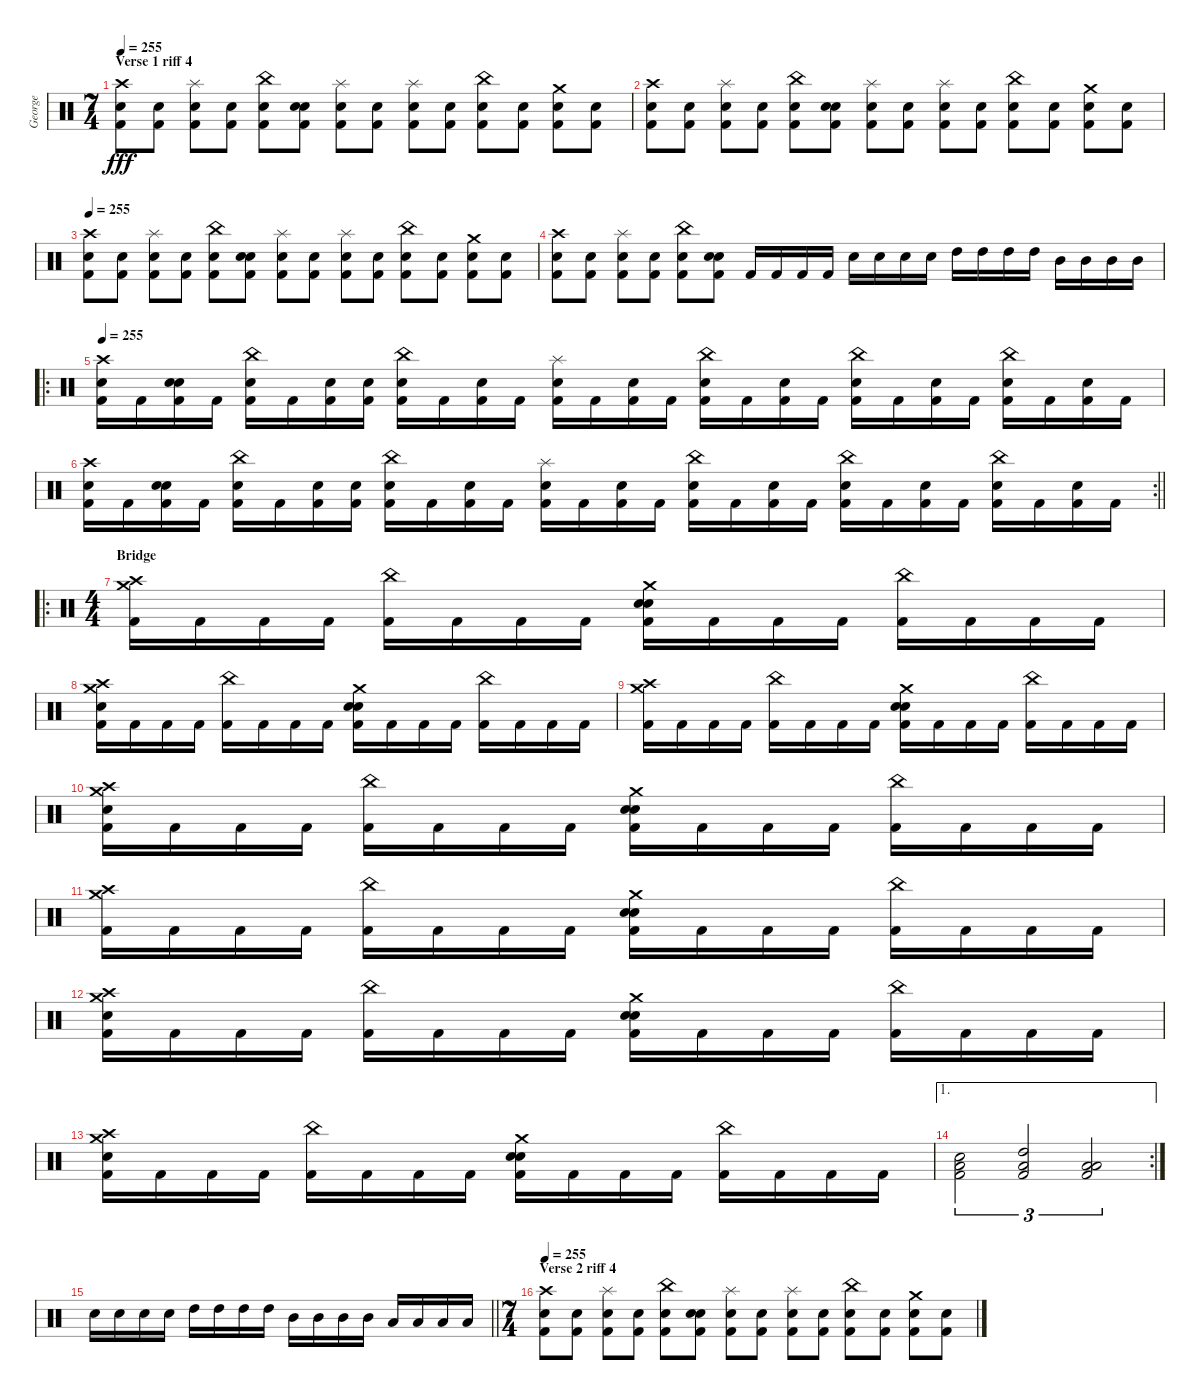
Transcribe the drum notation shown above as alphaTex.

\track ("George" "George") {instrument percussion}
\staff {score}
\articulation defaults
\ts (7 4)
\section ("" "Verse 1 riff 4")
\tempo 255
\clef neutral
\ks c
("Crash high (hit)" "Snare (hit) 2" "Kick (hit) 2").8{dy fff} ("Snare (hit) 2" "Kick (hit) 2").8 ("Splash (hit)" "Snare (hit) 2" "Kick (hit) 2").8 ("Snare (hit) 2" "Kick (hit) 2").8 ("China (hit)" "Snare (hit) 2" "Kick (hit) 2").8 ("Snare (hit)" "Snare (hit) 2" "Kick (hit) 2").8 ("Splash (hit)" "Snare (hit) 2" "Kick (hit) 2").8 ("Snare (hit) 2" "Kick (hit) 2").8 ("Splash (hit)" "Snare (hit) 2" "Kick (hit) 2").8 ("Snare (hit) 2" "Kick (hit) 2").8 ("China (hit)" "Snare (hit) 2" "Kick (hit) 2").8 ("Snare (hit) 2" "Kick (hit) 2").8 ("Crash medium (hit)" "Snare (hit) 2" "Kick (hit) 2").8 ("Snare (hit) 2" "Kick (hit) 2").8 |
("Crash high (hit)" "Snare (hit) 2" "Kick (hit) 2").8 ("Snare (hit) 2" "Kick (hit) 2").8 ("Splash (hit)" "Snare (hit) 2" "Kick (hit) 2").8 ("Snare (hit) 2" "Kick (hit) 2").8 ("China (hit)" "Snare (hit) 2" "Kick (hit) 2").8 ("Snare (hit)" "Snare (hit) 2" "Kick (hit) 2").8 ("Splash (hit)" "Snare (hit) 2" "Kick (hit) 2").8 ("Snare (hit) 2" "Kick (hit) 2").8 ("Splash (hit)" "Snare (hit) 2" "Kick (hit) 2").8 ("Snare (hit) 2" "Kick (hit) 2").8 ("China (hit)" "Snare (hit) 2" "Kick (hit) 2").8 ("Snare (hit) 2" "Kick (hit) 2").8 ("Crash medium (hit)" "Snare (hit) 2" "Kick (hit) 2").8 ("Snare (hit) 2" "Kick (hit) 2").8 |
\tempo 255
("Crash high (hit)" "Snare (hit) 2" "Kick (hit) 2").8 ("Snare (hit) 2" "Kick (hit) 2").8 ("Splash (hit)" "Snare (hit) 2" "Kick (hit) 2").8 ("Snare (hit) 2" "Kick (hit) 2").8 ("China (hit)" "Snare (hit) 2" "Kick (hit) 2").8 ("Snare (hit)" "Snare (hit) 2" "Kick (hit) 2").8 ("Splash (hit)" "Snare (hit) 2" "Kick (hit) 2").8 ("Snare (hit) 2" "Kick (hit) 2").8 ("Splash (hit)" "Snare (hit) 2" "Kick (hit) 2").8 ("Snare (hit) 2" "Kick (hit) 2").8 ("China (hit)" "Snare (hit) 2" "Kick (hit) 2").8 ("Snare (hit) 2" "Kick (hit) 2").8 ("Crash medium (hit)" "Snare (hit) 2" "Kick (hit) 2").8 ("Snare (hit) 2" "Kick (hit) 2").8 |
("Crash high (hit)" "Snare (hit) 2" "Kick (hit) 2").8 ("Snare (hit) 2" "Kick (hit) 2").8 ("Splash (hit)" "Snare (hit) 2" "Kick (hit) 2").8 ("Snare (hit) 2" "Kick (hit) 2").8 ("China (hit)" "Snare (hit) 2" "Kick (hit) 2").8 ("Snare (hit)" "Snare (hit) 2" "Kick (hit) 2").8 "Kick (hit) 2".16 "Kick (hit) 2".16 "Kick (hit) 2".16 "Kick (hit) 2".16 "Snare (hit) 2".16 "Snare (hit) 2".16 "Snare (hit) 2".16 "Snare (hit) 2".16 "High Tom (hit)".16 "High Tom (hit)".16 "High Tom (hit)".16 "High Tom (hit)".16 "Mid Tom (hit)".16 "Mid Tom (hit)".16 "Mid Tom (hit)".16 "Mid Tom (hit)".16 |
\ro
\tempo 255
("Crash high (hit)" "Snare (hit) 2" "Kick (hit) 2").16 "Kick (hit) 2".16 ("Snare (hit)" "Snare (hit) 2" "Kick (hit) 2").16 "Kick (hit) 2".16 ("China (hit)" "Snare (hit) 2" "Kick (hit) 2").16 "Kick (hit) 2".16 ("Snare (hit) 2" "Kick (hit) 2").16 ("Snare (hit)" "Kick (hit) 2").16 ("China (hit)" "Snare (hit) 2" "Kick (hit) 2").16 "Kick (hit) 2".16 ("Snare (hit) 2" "Kick (hit) 2").16 "Kick (hit) 2".16 ("Splash (hit)" "Snare (hit) 2" "Kick (hit) 2").16 "Kick (hit) 2".16 ("Snare (hit) 2" "Kick (hit) 2").16 "Kick (hit) 2".16 ("China (hit)" "Snare (hit) 2" "Kick (hit) 2").16 "Kick (hit) 2".16 ("Snare (hit) 2" "Kick (hit) 2").16 "Kick (hit) 2".16 ("China (hit)" "Snare (hit) 2" "Kick (hit) 2").16 "Kick (hit) 2".16 ("Snare (hit) 2" "Kick (hit) 2").16 "Kick (hit) 2".16 ("China (hit)" "Snare (hit) 2" "Kick (hit) 2").16 "Kick (hit) 2".16 ("Snare (hit) 2" "Kick (hit) 2").16 "Kick (hit) 2".16 |
\rc 2
\barLineRight lightlight
("Crash high (hit)" "Snare (hit) 2" "Kick (hit) 2").16 "Kick (hit) 2".16 ("Snare (hit)" "Snare (hit) 2" "Kick (hit) 2").16 "Kick (hit) 2".16 ("China (hit)" "Snare (hit) 2" "Kick (hit) 2").16 "Kick (hit) 2".16 ("Snare (hit) 2" "Kick (hit) 2").16 ("Snare (hit)" "Kick (hit) 2").16 ("China (hit)" "Snare (hit) 2" "Kick (hit) 2").16 "Kick (hit) 2".16 ("Snare (hit) 2" "Kick (hit) 2").16 "Kick (hit) 2".16 ("Splash (hit)" "Snare (hit) 2" "Kick (hit) 2").16 "Kick (hit) 2".16 ("Snare (hit) 2" "Kick (hit) 2").16 "Kick (hit) 2".16 ("China (hit)" "Snare (hit) 2" "Kick (hit) 2").16 "Kick (hit) 2".16 ("Snare (hit) 2" "Kick (hit) 2").16 "Kick (hit) 2".16 ("China (hit)" "Snare (hit) 2" "Kick (hit) 2").16 "Kick (hit) 2".16 ("Snare (hit) 2" "Kick (hit) 2").16 "Kick (hit) 2".16 ("China (hit)" "Snare (hit) 2" "Kick (hit) 2").16 "Kick (hit) 2".16 ("Snare (hit) 2" "Kick (hit) 2").16 "Kick (hit) 2".16 |
\ro
\ts (4 4)
\section ("" "Bridge")
("Crash medium (hit)" "Crash high (hit)" "Kick (hit) 2").16 "Kick (hit) 2".16 "Kick (hit) 2".16 "Kick (hit) 2".16 ("China (hit)" "Kick (hit) 2").16 "Kick (hit) 2".16 "Kick (hit) 2".16 "Kick (hit) 2".16 ("Crash medium (hit)" "Snare (hit)" "Snare (hit)" "Kick (hit) 2").16 "Kick (hit) 2".16 "Kick (hit) 2".16 "Kick (hit) 2".16 ("China (hit)" "Kick (hit) 2").16 "Kick (hit) 2".16 "Kick (hit) 2".16 "Kick (hit) 2".16 |
("Crash medium (hit)" "Crash high (hit)" "Snare (hit) 2" "Kick (hit) 2").16 "Kick (hit) 2".16 "Kick (hit) 2".16 "Kick (hit) 2".16 ("China (hit)" "Kick (hit) 2").16 "Kick (hit) 2".16 "Kick (hit) 2".16 "Kick (hit) 2".16 ("Crash medium (hit)" "Snare (hit)" "Snare (hit)" "Kick (hit) 2").16 "Kick (hit) 2".16 "Kick (hit) 2".16 "Kick (hit) 2".16 ("China (hit)" "Kick (hit) 2").16 "Kick (hit) 2".16 "Kick (hit) 2".16 "Kick (hit) 2".16 |
("Crash medium (hit)" "Crash high (hit)" "Kick (hit) 2").16 "Kick (hit) 2".16 "Kick (hit) 2".16 "Kick (hit) 2".16 ("China (hit)" "Kick (hit) 2").16 "Kick (hit) 2".16 "Kick (hit) 2".16 "Kick (hit) 2".16 ("Crash medium (hit)" "Snare (hit)" "Snare (hit)" "Kick (hit) 2").16 "Kick (hit) 2".16 "Kick (hit) 2".16 "Kick (hit) 2".16 ("China (hit)" "Kick (hit) 2").16 "Kick (hit) 2".16 "Kick (hit) 2".16 "Kick (hit) 2".16 |
("Crash medium (hit)" "Crash high (hit)" "Snare (hit) 2" "Kick (hit) 2").16 "Kick (hit) 2".16 "Kick (hit) 2".16 "Kick (hit) 2".16 ("China (hit)" "Kick (hit) 2").16 "Kick (hit) 2".16 "Kick (hit) 2".16 "Kick (hit) 2".16 ("Crash medium (hit)" "Snare (hit)" "Snare (hit)" "Kick (hit) 2").16 "Kick (hit) 2".16 "Kick (hit) 2".16 "Kick (hit) 2".16 ("China (hit)" "Kick (hit) 2").16 "Kick (hit) 2".16 "Kick (hit) 2".16 "Kick (hit) 2".16 |
("Crash medium (hit)" "Crash high (hit)" "Kick (hit) 2").16 "Kick (hit) 2".16 "Kick (hit) 2".16 "Kick (hit) 2".16 ("China (hit)" "Kick (hit) 2").16 "Kick (hit) 2".16 "Kick (hit) 2".16 "Kick (hit) 2".16 ("Crash medium (hit)" "Snare (hit)" "Snare (hit)" "Kick (hit) 2").16 "Kick (hit) 2".16 "Kick (hit) 2".16 "Kick (hit) 2".16 ("China (hit)" "Kick (hit) 2").16 "Kick (hit) 2".16 "Kick (hit) 2".16 "Kick (hit) 2".16 |
("Crash medium (hit)" "Crash high (hit)" "Snare (hit) 2" "Kick (hit) 2").16 "Kick (hit) 2".16 "Kick (hit) 2".16 "Kick (hit) 2".16 ("China (hit)" "Kick (hit) 2").16 "Kick (hit) 2".16 "Kick (hit) 2".16 "Kick (hit) 2".16 ("Crash medium (hit)" "Snare (hit)" "Snare (hit)" "Kick (hit) 2").16 "Kick (hit) 2".16 "Kick (hit) 2".16 "Kick (hit) 2".16 ("China (hit)" "Kick (hit) 2").16 "Kick (hit) 2".16 "Kick (hit) 2".16 "Kick (hit) 2".16 |
("Crash medium (hit)" "Crash high (hit)" "Snare (hit) 2" "Kick (hit) 2").16 "Kick (hit) 2".16 "Kick (hit) 2".16 "Kick (hit) 2".16 ("China (hit)" "Kick (hit) 2").16 "Kick (hit) 2".16 "Kick (hit) 2".16 "Kick (hit) 2".16 ("Crash medium (hit)" "Snare (hit)" "Snare (hit)" "Kick (hit) 2").16 "Kick (hit) 2".16 "Kick (hit) 2".16 "Kick (hit) 2".16 ("China (hit)" "Kick (hit) 2").16 "Kick (hit) 2".16 "Kick (hit) 2".16 "Kick (hit) 2".16 |
\ae 1
\rc 2
("Snare (hit) 2" "Kick (hit) 2" "Low Floor Tom (hit)").2{tu (3 2)} ("Low Tom (hit)" "High Tom (hit)" "Kick (hit) 2").2{tu (3 2)} ("Low Tom (hit)" "Low Floor Tom (hit)" "Kick (hit) 2").2{tu (3 2)} |
\barLineRight lightlight "Snare (hit) 2".16 "Snare (hit) 2".16 "Snare (hit) 2".16 "Snare (hit) 2".16 "High Tom (hit)".16 "High Tom (hit)".16 "High Tom (hit)".16 "High Tom (hit)".16 "Mid Tom (hit)".16 "Mid Tom (hit)".16 "Mid Tom (hit)".16 "Mid Tom (hit)".16 "Low Tom (hit)".16 "Low Tom (hit)".16 "Low Tom (hit)".16 "Low Tom (hit)".16
|
\ts (7 4)
\section ("" "Verse 2 riff 4")
\tempo 255
("Crash high (hit)" "Snare (hit) 2" "Kick (hit) 2").8 ("Snare (hit) 2" "Kick (hit) 2").8 ("Splash (hit)" "Snare (hit) 2" "Kick (hit) 2").8 ("Snare (hit) 2" "Kick (hit) 2").8 ("China (hit)" "Snare (hit) 2" "Kick (hit) 2").8 ("Snare (hit)" "Snare (hit) 2" "Kick (hit) 2").8 ("Splash (hit)" "Snare (hit) 2" "Kick (hit) 2").8 ("Snare (hit) 2" "Kick (hit) 2").8 ("Splash (hit)" "Snare (hit) 2" "Kick (hit) 2").8 ("Snare (hit) 2" "Kick (hit) 2").8 ("China (hit)" "Snare (hit) 2" "Kick (hit) 2").8 ("Snare (hit) 2" "Kick (hit) 2").8 ("Crash medium (hit)" "Snare (hit) 2" "Kick (hit) 2").8 ("Snare (hit) 2" "Kick (hit) 2").8
